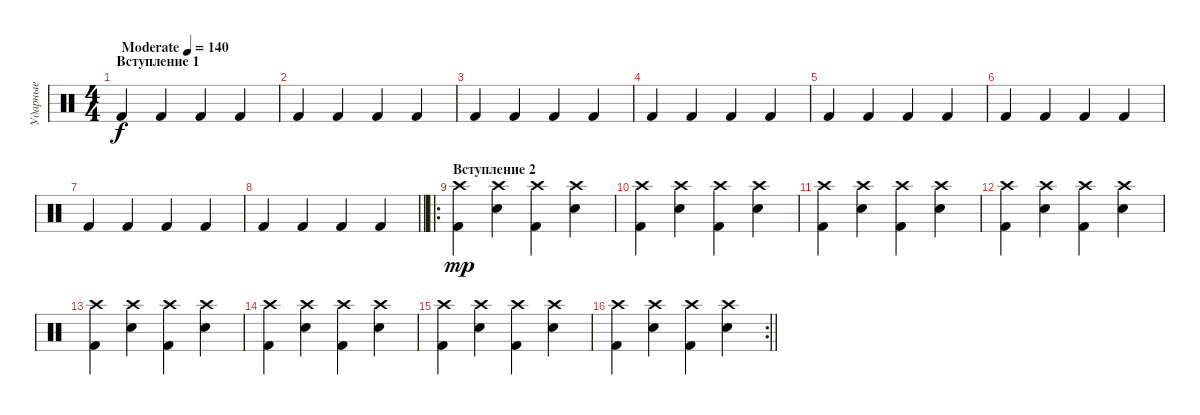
\track ("Ударные" "Ударные") {instrument percussion}
\staff {score}
\articulation defaults
\ts (4 4)
\section ("" "Вступление 1")
\tempo (140 "Moderate")
\clef neutral
\ks c "Kick (hit) 2".4{dy f} "Kick (hit) 2".4 "Kick (hit) 2".4 "Kick (hit) 2".4
|
"Kick (hit) 2".4 "Kick (hit) 2".4 "Kick (hit) 2".4 "Kick (hit) 2".4 |
"Kick (hit) 2".4 "Kick (hit) 2".4 "Kick (hit) 2".4 "Kick (hit) 2".4 |
"Kick (hit) 2".4 "Kick (hit) 2".4 "Kick (hit) 2".4 "Kick (hit) 2".4 |
"Kick (hit) 2".4 "Kick (hit) 2".4 "Kick (hit) 2".4 "Kick (hit) 2".4 |
"Kick (hit) 2".4 "Kick (hit) 2".4 "Kick (hit) 2".4 "Kick (hit) 2".4 |
"Kick (hit) 2".4 "Kick (hit) 2".4 "Kick (hit) 2".4 "Kick (hit) 2".4 |
\barLineRight lightlight "Kick (hit) 2".4 "Kick (hit) 2".4 "Kick (hit) 2".4 "Kick (hit) 2".4
|
\ro
\section ("" "Вступление 2")
("Crash high (hit)" "Kick (hit) 2").4{dy mp} ("Crash high (hit)" "Snare (hit) 2").4 ("Crash high (hit)" "Kick (hit) 2").4 ("Crash high (hit)" "Snare (hit) 2").4 |
("Crash high (hit)" "Kick (hit) 2").4 ("Crash high (hit)" "Snare (hit) 2").4 ("Crash high (hit)" "Kick (hit) 2").4 ("Crash high (hit)" "Snare (hit) 2").4 |
("Crash high (hit)" "Kick (hit) 2").4 ("Crash high (hit)" "Snare (hit) 2").4 ("Crash high (hit)" "Kick (hit) 2").4 ("Crash high (hit)" "Snare (hit) 2").4 |
("Crash high (hit)" "Kick (hit) 2").4 ("Crash high (hit)" "Snare (hit) 2").4 ("Crash high (hit)" "Kick (hit) 2").4 ("Crash high (hit)" "Snare (hit) 2").4 |
("Crash high (hit)" "Kick (hit) 2").4 ("Crash high (hit)" "Snare (hit) 2").4 ("Crash high (hit)" "Kick (hit) 2").4 ("Crash high (hit)" "Snare (hit) 2").4 |
("Crash high (hit)" "Kick (hit) 2").4 ("Crash high (hit)" "Snare (hit) 2").4 ("Crash high (hit)" "Kick (hit) 2").4 ("Crash high (hit)" "Snare (hit) 2").4 |
("Crash high (hit)" "Kick (hit) 2").4 ("Crash high (hit)" "Snare (hit) 2").4 ("Crash high (hit)" "Kick (hit) 2").4 ("Crash high (hit)" "Snare (hit) 2").4 |
\rc 2
\barLineRight lightlight
("Crash high (hit)" "Kick (hit) 2").4 ("Crash high (hit)" "Snare (hit) 2").4 ("Crash high (hit)" "Kick (hit) 2").4 ("Crash high (hit)" "Snare (hit) 2").4
